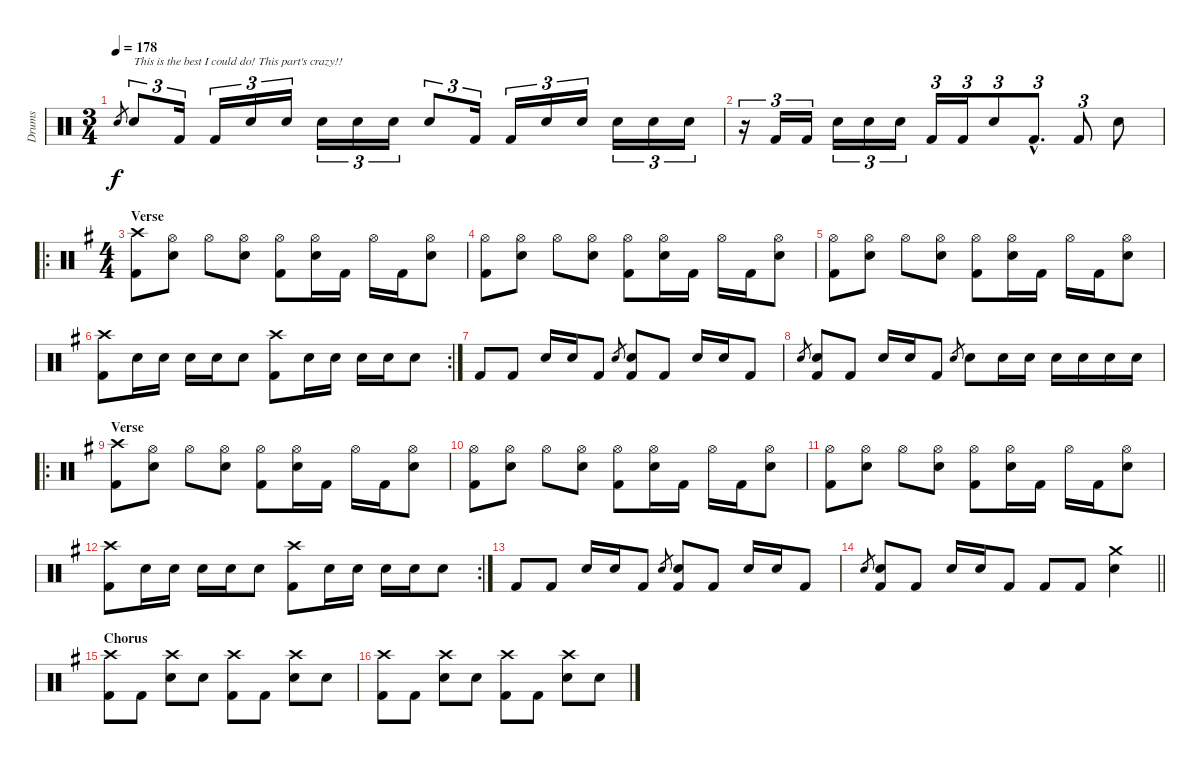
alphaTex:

\track ("Drums" "Drums") {instrument percussion}
\staff {score}
\articulation defaults
\ts (3 4)
\tempo 178
\clef neutral
\ks c "Snare (hit) 2".8{gr dy f} "Snare (hit) 2".8{tu (3 2) txt "This is the best I could do! This part's crazy!!"} "Kick (hit) 2".16{tu (3 2)} "Kick (hit) 2".16{tu (3 2)} "Snare (hit) 2".16{tu (3 2)} "Snare (hit) 2".16{tu (3 2)} "Snare (hit) 2".16{tu (3 2)} "Snare (hit) 2".16{tu (3 2)} "Snare (hit) 2".16{tu (3 2)} "Snare (hit) 2".8{tu (3 2)} "Kick (hit) 2".16{tu (3 2)} "Kick (hit) 2".16{tu (3 2)} "Snare (hit) 2".16{tu (3 2)} "Snare (hit) 2".16{tu (3 2)} "Snare (hit) 2".16{tu (3 2)} "Snare (hit) 2".16{tu (3 2)} "Snare (hit) 2".16{tu (3 2)}
|
r.16{tu (3 2)} "Kick (hit) 2".16{tu (3 2)} "Kick (hit) 2".16{tu (3 2)} "Snare (hit) 2".16{tu (3 2)} "Snare (hit) 2".16{tu (3 2)} "Snare (hit) 2".16{tu (3 2)} "Kick (hit) 2".16{tu (3 2)} "Kick (hit) 2".16{tu (3 2)} "Snare (hit) 2".8{tu (3 2)} "Kick (hit) 2"{hac}.8{d tu (3 2)} "Kick (hit) 2".8{tu (3 2)} "Snare (hit) 2".8 |
\ro
\ts (4 4)
\section ("" "Verse")
\ks g
("Kick (hit) 2" "Crash high (hit)").8 ("Snare (hit) 2" "Hi-Hat (open)").8 "Hi-Hat (open)".8 ("Snare (hit) 2" "Hi-Hat (open)").8 ("Kick (hit) 2" "Hi-Hat (open)").8 ("Snare (hit) 2" "Hi-Hat (open)").16 "Kick (hit) 2".16 "Hi-Hat (open)".16 "Kick (hit) 2".16 ("Snare (hit) 2" "Hi-Hat (open)").8 |
("Kick (hit) 2" "Hi-Hat (open)").8 ("Snare (hit) 2" "Hi-Hat (open)").8 "Hi-Hat (open)".8 ("Snare (hit) 2" "Hi-Hat (open)").8 ("Kick (hit) 2" "Hi-Hat (open)").8 ("Snare (hit) 2" "Hi-Hat (open)").16 "Kick (hit) 2".16 "Hi-Hat (open)".16 "Kick (hit) 2".16 ("Snare (hit) 2" "Hi-Hat (open)").8 |
("Kick (hit) 2" "Hi-Hat (open)").8 ("Snare (hit) 2" "Hi-Hat (open)").8 "Hi-Hat (open)".8 ("Snare (hit) 2" "Hi-Hat (open)").8 ("Kick (hit) 2" "Hi-Hat (open)").8 ("Snare (hit) 2" "Hi-Hat (open)").16 "Kick (hit) 2".16 "Hi-Hat (open)".16 "Kick (hit) 2".16 ("Snare (hit) 2" "Hi-Hat (open)").8 |
\rc 2
("Kick (hit) 2" "Crash high (hit)").8 "Snare (hit) 2".16 "Snare (hit) 2".16 "Snare (hit) 2".16 "Snare (hit) 2".16 "Snare (hit) 2".8 ("Kick (hit) 2" "Crash high (hit)").8 "Snare (hit) 2".16 "Snare (hit) 2".16 "Snare (hit) 2".16 "Snare (hit) 2".16 "Snare (hit) 2".8 |
"Kick (hit) 2".8 "Kick (hit) 2".8 "Snare (hit) 2".16 "Snare (hit) 2".16 "Kick (hit) 2".8 "Snare (hit) 2".8{gr} ("Kick (hit) 2" "Snare (hit) 2").8 "Kick (hit) 2".8 "Snare (hit) 2".16 "Snare (hit) 2".16 "Kick (hit) 2".8 |
"Snare (hit) 2".8{gr} ("Kick (hit) 2" "Snare (hit) 2").8 "Kick (hit) 2".8 "Snare (hit) 2".16 "Snare (hit) 2".16 "Kick (hit) 2".8 "Snare (hit) 2".8{gr} "Snare (hit) 2".8 "Snare (hit) 2".16 "Snare (hit) 2".16 "Snare (hit) 2".16 "Snare (hit) 2".16 "Snare (hit) 2".16 "Snare (hit) 2".16 |
\ro
\section ("" "Verse")
("Kick (hit) 2" "Crash high (hit)").8 ("Snare (hit) 2" "Hi-Hat (open)").8 "Hi-Hat (open)".8 ("Snare (hit) 2" "Hi-Hat (open)").8 ("Kick (hit) 2" "Hi-Hat (open)").8 ("Snare (hit) 2" "Hi-Hat (open)").16 "Kick (hit) 2".16 "Hi-Hat (open)".16 "Kick (hit) 2".16 ("Snare (hit) 2" "Hi-Hat (open)").8 |
("Kick (hit) 2" "Hi-Hat (open)").8 ("Snare (hit) 2" "Hi-Hat (open)").8 "Hi-Hat (open)".8 ("Snare (hit) 2" "Hi-Hat (open)").8 ("Kick (hit) 2" "Hi-Hat (open)").8 ("Snare (hit) 2" "Hi-Hat (open)").16 "Kick (hit) 2".16 "Hi-Hat (open)".16 "Kick (hit) 2".16 ("Snare (hit) 2" "Hi-Hat (open)").8 |
("Kick (hit) 2" "Hi-Hat (open)").8 ("Snare (hit) 2" "Hi-Hat (open)").8 "Hi-Hat (open)".8 ("Snare (hit) 2" "Hi-Hat (open)").8 ("Kick (hit) 2" "Hi-Hat (open)").8 ("Snare (hit) 2" "Hi-Hat (open)").16 "Kick (hit) 2".16 "Hi-Hat (open)".16 "Kick (hit) 2".16 ("Snare (hit) 2" "Hi-Hat (open)").8 |
\rc 2
("Kick (hit) 2" "Crash high (hit)").8 "Snare (hit) 2".16 "Snare (hit) 2".16 "Snare (hit) 2".16 "Snare (hit) 2".16 "Snare (hit) 2".8 ("Kick (hit) 2" "Crash high (hit)").8 "Snare (hit) 2".16 "Snare (hit) 2".16 "Snare (hit) 2".16 "Snare (hit) 2".16 "Snare (hit) 2".8 |
"Kick (hit) 2".8 "Kick (hit) 2".8 "Snare (hit) 2".16 "Snare (hit) 2".16 "Kick (hit) 2".8 "Snare (hit) 2".8{gr} ("Kick (hit) 2" "Snare (hit) 2").8 "Kick (hit) 2".8 "Snare (hit) 2".16 "Snare (hit) 2".16 "Kick (hit) 2".8 |
\barLineRight lightlight "Snare (hit) 2".8{gr}
("Kick (hit) 2" "Snare (hit) 2").8 "Kick (hit) 2".8 "Snare (hit) 2".16 "Snare (hit) 2".16 "Kick (hit) 2".8 "Kick (hit) 2".8 "Kick (hit) 2".8 ("Crash medium (hit)" "Snare (hit) 2").4 |
\section ("" "Chorus")
("Kick (hit) 2" "Crash high (hit)").8 "Kick (hit) 2".8 ("Crash high (hit)" "Snare (hit) 2").8 "Snare (hit) 2".8 ("Kick (hit) 2" "Crash high (hit)").8 "Kick (hit) 2".8 ("Crash high (hit)" "Snare (hit) 2").8 "Snare (hit) 2".8 |
("Kick (hit) 2" "Crash high (hit)").8 "Kick (hit) 2".8 ("Crash high (hit)" "Snare (hit) 2").8 "Snare (hit) 2".8 ("Kick (hit) 2" "Crash high (hit)").8 "Kick (hit) 2".8 ("Crash high (hit)" "Snare (hit) 2").8 "Snare (hit) 2".8
